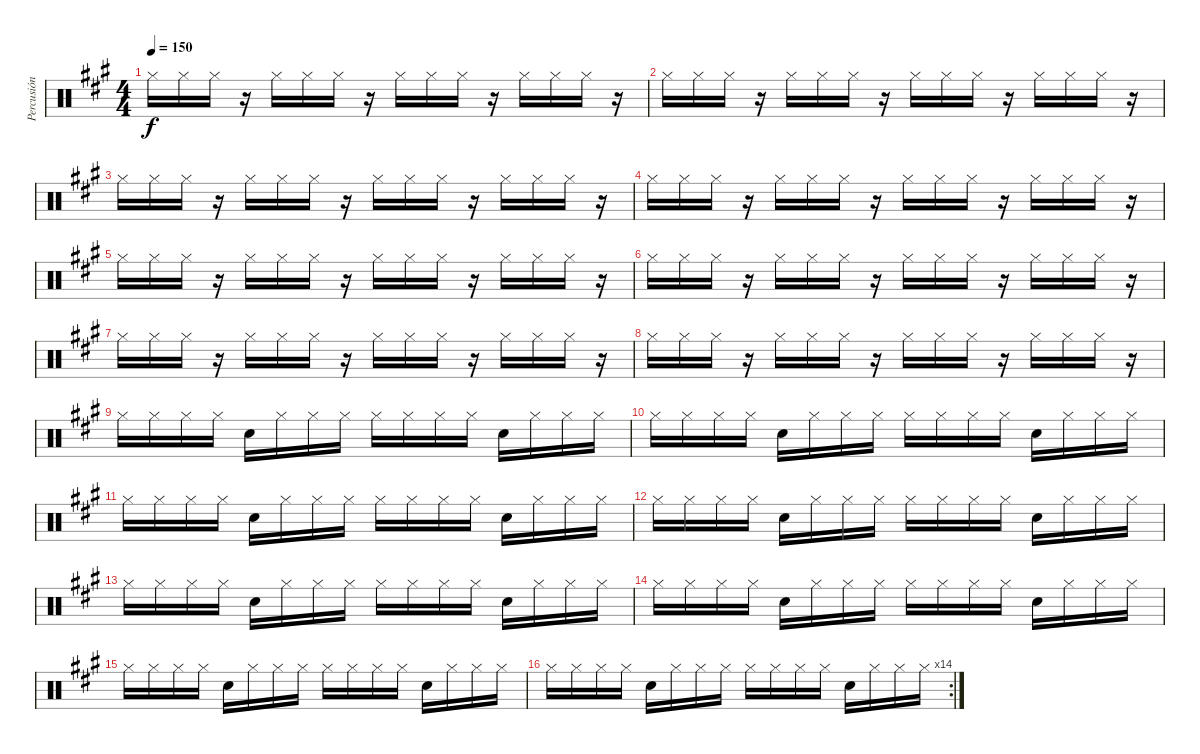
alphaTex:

\track ("Percusión" "Percusión") {instrument percussion}
\staff {score}
\articulation defaults
\ts (4 4)
\tempo 150
\clef neutral
\ks a "Hi-Hat (closed)".16{dy f} "Hi-Hat (closed)".16 "Hi-Hat (closed)".16
r.16 "Hi-Hat (closed)".16 "Hi-Hat (closed)".16 "Hi-Hat (closed)".16 r.16 "Hi-Hat (closed)".16 "Hi-Hat (closed)".16 "Hi-Hat (closed)".16 r.16 "Hi-Hat (closed)".16 "Hi-Hat (closed)".16 "Hi-Hat (closed)".16 r.16 |
"Hi-Hat (closed)".16 "Hi-Hat (closed)".16 "Hi-Hat (closed)".16 r.16 "Hi-Hat (closed)".16 "Hi-Hat (closed)".16 "Hi-Hat (closed)".16 r.16 "Hi-Hat (closed)".16 "Hi-Hat (closed)".16 "Hi-Hat (closed)".16 r.16 "Hi-Hat (closed)".16 "Hi-Hat (closed)".16 "Hi-Hat (closed)".16 r.16 |
"Hi-Hat (closed)".16 "Hi-Hat (closed)".16 "Hi-Hat (closed)".16 r.16 "Hi-Hat (closed)".16 "Hi-Hat (closed)".16 "Hi-Hat (closed)".16 r.16 "Hi-Hat (closed)".16 "Hi-Hat (closed)".16 "Hi-Hat (closed)".16 r.16 "Hi-Hat (closed)".16 "Hi-Hat (closed)".16 "Hi-Hat (closed)".16 r.16 |
"Hi-Hat (closed)".16 "Hi-Hat (closed)".16 "Hi-Hat (closed)".16 r.16 "Hi-Hat (closed)".16 "Hi-Hat (closed)".16 "Hi-Hat (closed)".16 r.16 "Hi-Hat (closed)".16 "Hi-Hat (closed)".16 "Hi-Hat (closed)".16 r.16 "Hi-Hat (closed)".16 "Hi-Hat (closed)".16 "Hi-Hat (closed)".16 r.16 |
"Hi-Hat (closed)".16 "Hi-Hat (closed)".16 "Hi-Hat (closed)".16 r.16 "Hi-Hat (closed)".16 "Hi-Hat (closed)".16 "Hi-Hat (closed)".16 r.16 "Hi-Hat (closed)".16 "Hi-Hat (closed)".16 "Hi-Hat (closed)".16 r.16 "Hi-Hat (closed)".16 "Hi-Hat (closed)".16 "Hi-Hat (closed)".16 r.16 |
"Hi-Hat (closed)".16 "Hi-Hat (closed)".16 "Hi-Hat (closed)".16 r.16 "Hi-Hat (closed)".16 "Hi-Hat (closed)".16 "Hi-Hat (closed)".16 r.16 "Hi-Hat (closed)".16 "Hi-Hat (closed)".16 "Hi-Hat (closed)".16 r.16 "Hi-Hat (closed)".16 "Hi-Hat (closed)".16 "Hi-Hat (closed)".16 r.16 |
"Hi-Hat (closed)".16 "Hi-Hat (closed)".16 "Hi-Hat (closed)".16 r.16 "Hi-Hat (closed)".16 "Hi-Hat (closed)".16 "Hi-Hat (closed)".16 r.16 "Hi-Hat (closed)".16 "Hi-Hat (closed)".16 "Hi-Hat (closed)".16 r.16 "Hi-Hat (closed)".16 "Hi-Hat (closed)".16 "Hi-Hat (closed)".16 r.16 |
"Hi-Hat (closed)".16 "Hi-Hat (closed)".16 "Hi-Hat (closed)".16 r.16 "Hi-Hat (closed)".16 "Hi-Hat (closed)".16 "Hi-Hat (closed)".16 r.16 "Hi-Hat (closed)".16 "Hi-Hat (closed)".16 "Hi-Hat (closed)".16 r.16 "Hi-Hat (closed)".16 "Hi-Hat (closed)".16 "Hi-Hat (closed)".16 r.16 |
"Hi-Hat (closed)".16 "Hi-Hat (closed)".16 "Hi-Hat (closed)".16 "Hi-Hat (closed)".16 "Electric Snare (hit)".16 "Hi-Hat (closed)".16 "Hi-Hat (closed)".16 "Hi-Hat (closed)".16 "Hi-Hat (closed)".16 "Hi-Hat (closed)".16 "Hi-Hat (closed)".16 "Hi-Hat (closed)".16 "Electric Snare (hit)".16 "Hi-Hat (closed)".16 "Hi-Hat (closed)".16 "Hi-Hat (closed)".16 |
"Hi-Hat (closed)".16 "Hi-Hat (closed)".16 "Hi-Hat (closed)".16 "Hi-Hat (closed)".16 "Electric Snare (hit)".16 "Hi-Hat (closed)".16 "Hi-Hat (closed)".16 "Hi-Hat (closed)".16 "Hi-Hat (closed)".16 "Hi-Hat (closed)".16 "Hi-Hat (closed)".16 "Hi-Hat (closed)".16 "Electric Snare (hit)".16 "Hi-Hat (closed)".16 "Hi-Hat (closed)".16 "Hi-Hat (closed)".16 |
"Hi-Hat (closed)".16 "Hi-Hat (closed)".16 "Hi-Hat (closed)".16 "Hi-Hat (closed)".16 "Electric Snare (hit)".16 "Hi-Hat (closed)".16 "Hi-Hat (closed)".16 "Hi-Hat (closed)".16 "Hi-Hat (closed)".16 "Hi-Hat (closed)".16 "Hi-Hat (closed)".16 "Hi-Hat (closed)".16 "Electric Snare (hit)".16 "Hi-Hat (closed)".16 "Hi-Hat (closed)".16 "Hi-Hat (closed)".16 |
"Hi-Hat (closed)".16 "Hi-Hat (closed)".16 "Hi-Hat (closed)".16 "Hi-Hat (closed)".16 "Electric Snare (hit)".16 "Hi-Hat (closed)".16 "Hi-Hat (closed)".16 "Hi-Hat (closed)".16 "Hi-Hat (closed)".16 "Hi-Hat (closed)".16 "Hi-Hat (closed)".16 "Hi-Hat (closed)".16 "Electric Snare (hit)".16 "Hi-Hat (closed)".16 "Hi-Hat (closed)".16 "Hi-Hat (closed)".16 |
"Hi-Hat (closed)".16 "Hi-Hat (closed)".16 "Hi-Hat (closed)".16 "Hi-Hat (closed)".16 "Electric Snare (hit)".16 "Hi-Hat (closed)".16 "Hi-Hat (closed)".16 "Hi-Hat (closed)".16 "Hi-Hat (closed)".16 "Hi-Hat (closed)".16 "Hi-Hat (closed)".16 "Hi-Hat (closed)".16 "Electric Snare (hit)".16 "Hi-Hat (closed)".16 "Hi-Hat (closed)".16 "Hi-Hat (closed)".16 |
"Hi-Hat (closed)".16 "Hi-Hat (closed)".16 "Hi-Hat (closed)".16 "Hi-Hat (closed)".16 "Electric Snare (hit)".16 "Hi-Hat (closed)".16 "Hi-Hat (closed)".16 "Hi-Hat (closed)".16 "Hi-Hat (closed)".16 "Hi-Hat (closed)".16 "Hi-Hat (closed)".16 "Hi-Hat (closed)".16 "Electric Snare (hit)".16 "Hi-Hat (closed)".16 "Hi-Hat (closed)".16 "Hi-Hat (closed)".16 |
"Hi-Hat (closed)".16 "Hi-Hat (closed)".16 "Hi-Hat (closed)".16 "Hi-Hat (closed)".16 "Electric Snare (hit)".16 "Hi-Hat (closed)".16 "Hi-Hat (closed)".16 "Hi-Hat (closed)".16 "Hi-Hat (closed)".16 "Hi-Hat (closed)".16 "Hi-Hat (closed)".16 "Hi-Hat (closed)".16 "Electric Snare (hit)".16 "Hi-Hat (closed)".16 "Hi-Hat (closed)".16 "Hi-Hat (closed)".16 |
\rc 14 "Hi-Hat (closed)".16 "Hi-Hat (closed)".16 "Hi-Hat (closed)".16 "Hi-Hat (closed)".16 "Electric Snare (hit)".16 "Hi-Hat (closed)".16 "Hi-Hat (closed)".16 "Hi-Hat (closed)".16 "Hi-Hat (closed)".16 "Hi-Hat (closed)".16 "Hi-Hat (closed)".16 "Hi-Hat (closed)".16 "Electric Snare (hit)".16 "Hi-Hat (closed)".16 "Hi-Hat (closed)".16 "Hi-Hat (closed)".16
